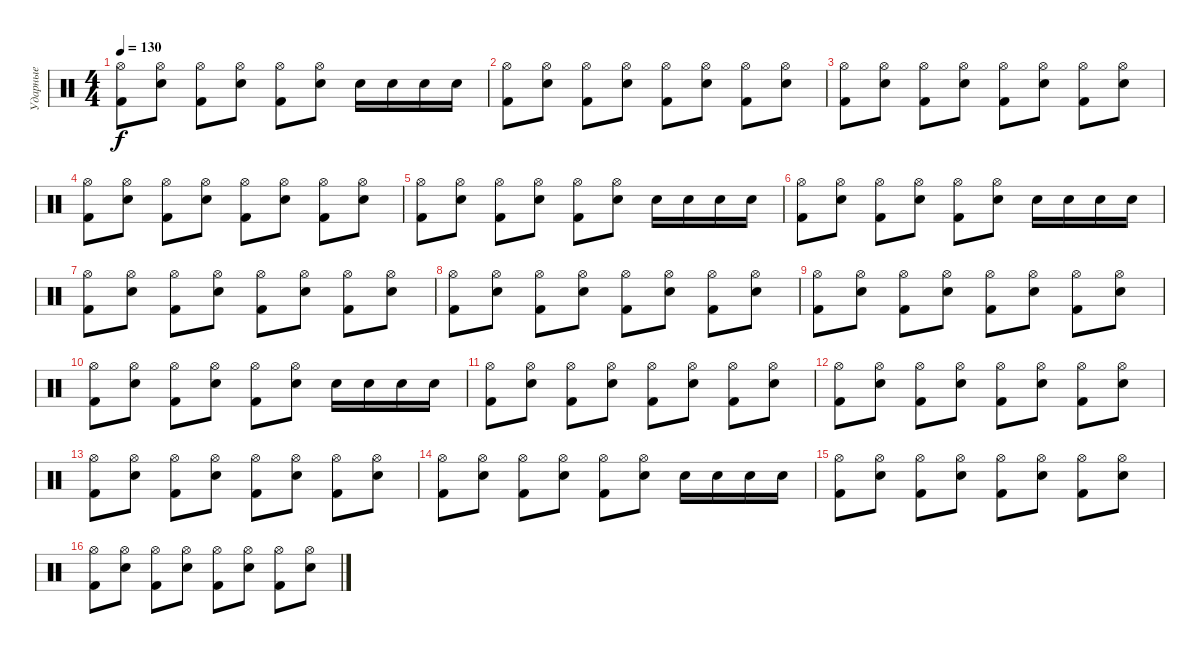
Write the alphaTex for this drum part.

\track ("Ударные" "Ударные") {instrument percussion}
\staff {score}
\articulation defaults
\ts (4 4)
\tempo 130
\clef neutral
\ks c
("Hi-Hat (open)" "Kick (hit) 2").8{dy f} ("Hi-Hat (open)" "Electric Snare (hit)").8 ("Hi-Hat (open)" "Kick (hit) 2").8 ("Hi-Hat (open)" "Electric Snare (hit)").8 ("Hi-Hat (open)" "Kick (hit) 2").8 ("Hi-Hat (open)" "Electric Snare (hit)").8 "Electric Snare (hit)".16 "Electric Snare (hit)".16 "Electric Snare (hit)".16 "Electric Snare (hit)".16 |
("Hi-Hat (open)" "Kick (hit) 2").8 ("Hi-Hat (open)" "Electric Snare (hit)").8 ("Hi-Hat (open)" "Kick (hit) 2").8 ("Hi-Hat (open)" "Electric Snare (hit)").8 ("Hi-Hat (open)" "Kick (hit) 2").8 ("Hi-Hat (open)" "Electric Snare (hit)").8 ("Hi-Hat (open)" "Kick (hit) 2").8 ("Hi-Hat (open)" "Electric Snare (hit)").8 |
("Hi-Hat (open)" "Kick (hit) 2").8 ("Hi-Hat (open)" "Electric Snare (hit)").8 ("Hi-Hat (open)" "Kick (hit) 2").8 ("Hi-Hat (open)" "Electric Snare (hit)").8 ("Hi-Hat (open)" "Kick (hit) 2").8 ("Hi-Hat (open)" "Electric Snare (hit)").8 ("Hi-Hat (open)" "Kick (hit) 2").8 ("Hi-Hat (open)" "Electric Snare (hit)").8 |
("Hi-Hat (open)" "Kick (hit) 2").8 ("Hi-Hat (open)" "Electric Snare (hit)").8 ("Hi-Hat (open)" "Kick (hit) 2").8 ("Hi-Hat (open)" "Electric Snare (hit)").8 ("Hi-Hat (open)" "Kick (hit) 2").8 ("Hi-Hat (open)" "Electric Snare (hit)").8 ("Hi-Hat (open)" "Kick (hit) 2").8 ("Hi-Hat (open)" "Electric Snare (hit)").8 |
("Hi-Hat (open)" "Kick (hit) 2").8 ("Hi-Hat (open)" "Electric Snare (hit)").8 ("Hi-Hat (open)" "Kick (hit) 2").8 ("Hi-Hat (open)" "Electric Snare (hit)").8 ("Hi-Hat (open)" "Kick (hit) 2").8 ("Hi-Hat (open)" "Electric Snare (hit)").8 "Electric Snare (hit)".16 "Electric Snare (hit)".16 "Electric Snare (hit)".16 "Electric Snare (hit)".16 |
("Hi-Hat (open)" "Kick (hit) 2").8 ("Hi-Hat (open)" "Electric Snare (hit)").8 ("Hi-Hat (open)" "Kick (hit) 2").8 ("Hi-Hat (open)" "Electric Snare (hit)").8 ("Hi-Hat (open)" "Kick (hit) 2").8 ("Hi-Hat (open)" "Electric Snare (hit)").8 "Electric Snare (hit)".16 "Electric Snare (hit)".16 "Electric Snare (hit)".16 "Electric Snare (hit)".16 |
("Hi-Hat (open)" "Kick (hit) 2").8 ("Hi-Hat (open)" "Electric Snare (hit)").8 ("Hi-Hat (open)" "Kick (hit) 2").8 ("Hi-Hat (open)" "Electric Snare (hit)").8 ("Hi-Hat (open)" "Kick (hit) 2").8 ("Hi-Hat (open)" "Electric Snare (hit)").8 ("Hi-Hat (open)" "Kick (hit) 2").8 ("Hi-Hat (open)" "Electric Snare (hit)").8 |
("Hi-Hat (open)" "Kick (hit) 2").8 ("Hi-Hat (open)" "Electric Snare (hit)").8 ("Hi-Hat (open)" "Kick (hit) 2").8 ("Hi-Hat (open)" "Electric Snare (hit)").8 ("Hi-Hat (open)" "Kick (hit) 2").8 ("Hi-Hat (open)" "Electric Snare (hit)").8 ("Hi-Hat (open)" "Kick (hit) 2").8 ("Hi-Hat (open)" "Electric Snare (hit)").8 |
("Hi-Hat (open)" "Kick (hit) 2").8 ("Hi-Hat (open)" "Electric Snare (hit)").8 ("Hi-Hat (open)" "Kick (hit) 2").8 ("Hi-Hat (open)" "Electric Snare (hit)").8 ("Hi-Hat (open)" "Kick (hit) 2").8 ("Hi-Hat (open)" "Electric Snare (hit)").8 ("Hi-Hat (open)" "Kick (hit) 2").8 ("Hi-Hat (open)" "Electric Snare (hit)").8 |
("Hi-Hat (open)" "Kick (hit) 2").8 ("Hi-Hat (open)" "Electric Snare (hit)").8 ("Hi-Hat (open)" "Kick (hit) 2").8 ("Hi-Hat (open)" "Electric Snare (hit)").8 ("Hi-Hat (open)" "Kick (hit) 2").8 ("Hi-Hat (open)" "Electric Snare (hit)").8 "Electric Snare (hit)".16 "Electric Snare (hit)".16 "Electric Snare (hit)".16 "Electric Snare (hit)".16 |
("Hi-Hat (open)" "Kick (hit) 2").8 ("Hi-Hat (open)" "Electric Snare (hit)").8 ("Hi-Hat (open)" "Kick (hit) 2").8 ("Hi-Hat (open)" "Electric Snare (hit)").8 ("Hi-Hat (open)" "Kick (hit) 2").8 ("Hi-Hat (open)" "Electric Snare (hit)").8 ("Hi-Hat (open)" "Kick (hit) 2").8 ("Hi-Hat (open)" "Electric Snare (hit)").8 |
("Hi-Hat (open)" "Kick (hit) 2").8 ("Hi-Hat (open)" "Electric Snare (hit)").8 ("Hi-Hat (open)" "Kick (hit) 2").8 ("Hi-Hat (open)" "Electric Snare (hit)").8 ("Hi-Hat (open)" "Kick (hit) 2").8 ("Hi-Hat (open)" "Electric Snare (hit)").8 ("Hi-Hat (open)" "Kick (hit) 2").8 ("Hi-Hat (open)" "Electric Snare (hit)").8 |
("Hi-Hat (open)" "Kick (hit) 2").8 ("Hi-Hat (open)" "Electric Snare (hit)").8 ("Hi-Hat (open)" "Kick (hit) 2").8 ("Hi-Hat (open)" "Electric Snare (hit)").8 ("Hi-Hat (open)" "Kick (hit) 2").8 ("Hi-Hat (open)" "Electric Snare (hit)").8 ("Hi-Hat (open)" "Kick (hit) 2").8 ("Hi-Hat (open)" "Electric Snare (hit)").8 |
("Hi-Hat (open)" "Kick (hit) 2").8 ("Hi-Hat (open)" "Electric Snare (hit)").8 ("Hi-Hat (open)" "Kick (hit) 2").8 ("Hi-Hat (open)" "Electric Snare (hit)").8 ("Hi-Hat (open)" "Kick (hit) 2").8 ("Hi-Hat (open)" "Electric Snare (hit)").8 "Electric Snare (hit)".16 "Electric Snare (hit)".16 "Electric Snare (hit)".16 "Electric Snare (hit)".16 |
("Hi-Hat (open)" "Kick (hit) 2").8 ("Hi-Hat (open)" "Electric Snare (hit)").8 ("Hi-Hat (open)" "Kick (hit) 2").8 ("Hi-Hat (open)" "Electric Snare (hit)").8 ("Hi-Hat (open)" "Kick (hit) 2").8 ("Hi-Hat (open)" "Electric Snare (hit)").8 ("Hi-Hat (open)" "Kick (hit) 2").8 ("Hi-Hat (open)" "Electric Snare (hit)").8 |
("Hi-Hat (open)" "Kick (hit) 2").8 ("Hi-Hat (open)" "Electric Snare (hit)").8 ("Hi-Hat (open)" "Kick (hit) 2").8 ("Hi-Hat (open)" "Electric Snare (hit)").8 ("Hi-Hat (open)" "Kick (hit) 2").8 ("Hi-Hat (open)" "Electric Snare (hit)").8 ("Hi-Hat (open)" "Kick (hit) 2").8 ("Hi-Hat (open)" "Electric Snare (hit)").8
